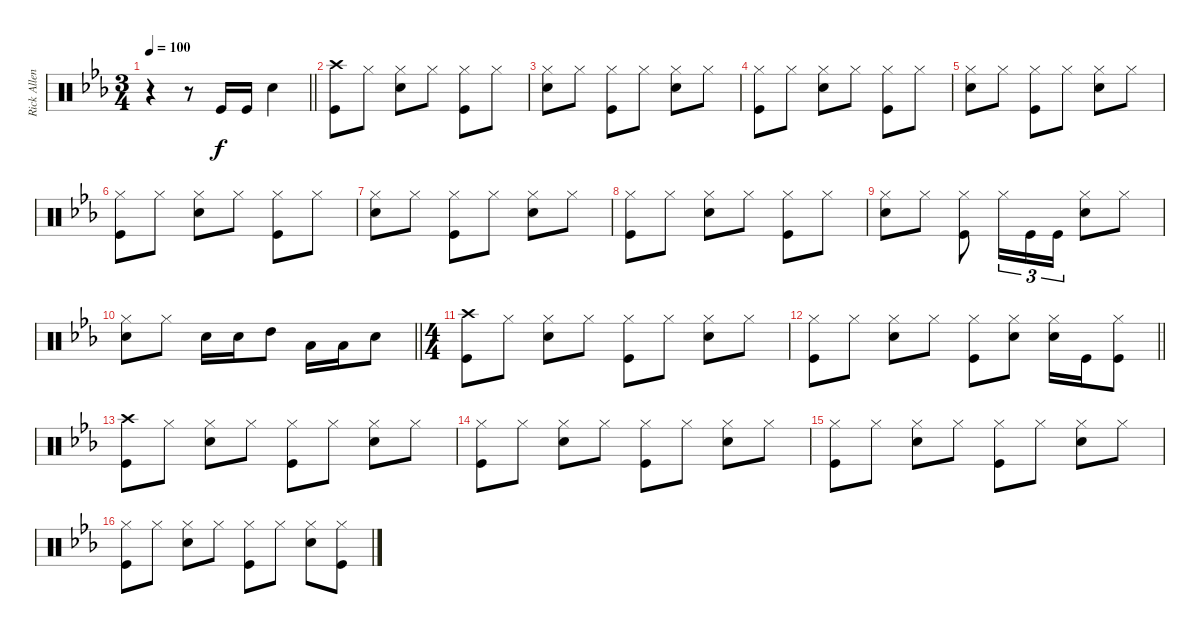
\track ("Rick Allen" "Rick Allen") {instrument percussion}
\staff {score}
\articulation defaults
\ts (3 4)
\tempo 100
\clef neutral
\barLineRight lightlight
\ks cminor
r.4{dy f} r.8 "Kick (hit)".16 "Kick (hit)".16 "Snare (hit) 2".4 |
("Crash high (hit)" "Kick (hit)").8 "Hi-Hat (closed)".8 ("Hi-Hat (closed)" "Snare (hit) 2").8 "Hi-Hat (closed)".8 ("Hi-Hat (closed)" "Kick (hit)").8 "Hi-Hat (closed)".8 |
("Hi-Hat (closed)" "Snare (hit) 2").8 "Hi-Hat (closed)".8 ("Hi-Hat (closed)" "Kick (hit)").8 "Hi-Hat (closed)".8 ("Hi-Hat (closed)" "Snare (hit) 2").8 "Hi-Hat (closed)".8 |
("Hi-Hat (closed)" "Kick (hit)").8 "Hi-Hat (closed)".8 ("Hi-Hat (closed)" "Snare (hit) 2").8 "Hi-Hat (closed)".8 ("Hi-Hat (closed)" "Kick (hit)").8 "Hi-Hat (closed)".8 |
("Hi-Hat (closed)" "Snare (hit) 2").8 "Hi-Hat (closed)".8 ("Hi-Hat (closed)" "Kick (hit)").8 "Hi-Hat (closed)".8 ("Hi-Hat (closed)" "Snare (hit) 2").8 "Hi-Hat (closed)".8 |
("Hi-Hat (closed)" "Kick (hit)").8 "Hi-Hat (closed)".8 ("Hi-Hat (closed)" "Snare (hit) 2").8 "Hi-Hat (closed)".8 ("Hi-Hat (closed)" "Kick (hit)").8 "Hi-Hat (closed)".8 |
("Hi-Hat (closed)" "Snare (hit) 2").8 "Hi-Hat (closed)".8 ("Hi-Hat (closed)" "Kick (hit)").8 "Hi-Hat (closed)".8 ("Hi-Hat (closed)" "Snare (hit) 2").8 "Hi-Hat (closed)".8 |
("Hi-Hat (closed)" "Kick (hit)").8 "Hi-Hat (closed)".8 ("Hi-Hat (closed)" "Snare (hit) 2").8 "Hi-Hat (closed)".8 ("Hi-Hat (closed)" "Kick (hit)").8 "Hi-Hat (closed)".8 |
("Hi-Hat (closed)" "Snare (hit) 2").8 "Hi-Hat (closed)".8 ("Hi-Hat (closed)" "Kick (hit)").8 "Hi-Hat (closed)".16{tu (3 2)} "Kick (hit)".16{tu (3 2)} "Kick (hit)".16{tu (3 2)} ("Hi-Hat (closed)" "Snare (hit) 2").8 "Hi-Hat (closed)".8 |
\barLineRight lightlight
("Hi-Hat (closed)" "Snare (hit) 2").8 "Hi-Hat (closed)".8 "Snare (hit) 2".16 "Snare (hit) 2".16 "High Tom (hit)".8 "Low Tom (hit)".16 "Low Tom (hit)".16 "Snare (hit) 2".8 |
\ts (4 4)
("Crash high (hit)" "Kick (hit)").8 "Hi-Hat (closed)".8 ("Hi-Hat (closed)" "Snare (hit) 2").8 "Hi-Hat (closed)".8 ("Hi-Hat (closed)" "Kick (hit)").8 "Hi-Hat (closed)".8 ("Hi-Hat (closed)" "Snare (hit) 2").8 "Hi-Hat (closed)".8 |
\barLineRight lightlight
("Hi-Hat (closed)" "Kick (hit)").8 "Hi-Hat (closed)".8 ("Hi-Hat (closed)" "Snare (hit) 2").8 "Hi-Hat (closed)".8 ("Hi-Hat (closed)" "Kick (hit)").8 ("Hi-Hat (closed)" "Snare (hit) 2").8 ("Hi-Hat (closed)" "Snare (hit) 2").16 "Kick (hit)".16 ("Hi-Hat (closed)" "Kick (hit)").8 |
("Crash high (hit)" "Kick (hit)").8 "Hi-Hat (closed)".8 ("Hi-Hat (closed)" "Snare (hit) 2").8 "Hi-Hat (closed)".8 ("Hi-Hat (closed)" "Kick (hit)").8 "Hi-Hat (closed)".8 ("Hi-Hat (closed)" "Snare (hit) 2").8 "Hi-Hat (closed)".8 |
("Hi-Hat (closed)" "Kick (hit)").8 "Hi-Hat (closed)".8 ("Hi-Hat (closed)" "Snare (hit) 2").8 "Hi-Hat (closed)".8 ("Hi-Hat (closed)" "Kick (hit)").8 "Hi-Hat (closed)".8 ("Hi-Hat (closed)" "Snare (hit) 2").8 "Hi-Hat (closed)".8 |
("Hi-Hat (closed)" "Kick (hit)").8 "Hi-Hat (closed)".8 ("Hi-Hat (closed)" "Snare (hit) 2").8 "Hi-Hat (closed)".8 ("Hi-Hat (closed)" "Kick (hit)").8 "Hi-Hat (closed)".8 ("Hi-Hat (closed)" "Snare (hit) 2").8 "Hi-Hat (closed)".8 |
("Hi-Hat (closed)" "Kick (hit)").8 "Hi-Hat (closed)".8 ("Hi-Hat (closed)" "Snare (hit) 2").8 "Hi-Hat (closed)".8 ("Hi-Hat (closed)" "Kick (hit)").8 "Hi-Hat (closed)".8 ("Hi-Hat (closed)" "Snare (hit) 2").8 ("Hi-Hat (closed)" "Kick (hit)").8
